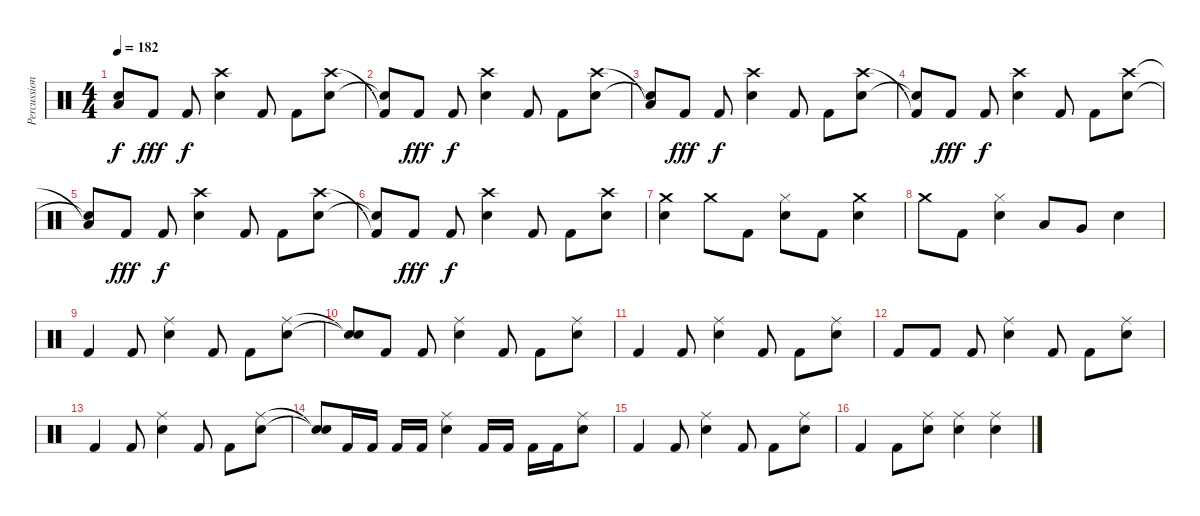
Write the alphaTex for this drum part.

\track ("Percussion" "Percussion") {instrument percussion}
\staff {score}
\articulation defaults
\ts (4 4)
\tempo 182
\clef neutral
\ks c
("Low Floor Tom (hit)"{t} "Snare (hit)"{t}).8{dy f} "Kick (hit) 2".8{dy fff} "Kick (hit) 2".8{dy f} ("Crash high (hit)" "Snare (hit) 2").4 "Kick (hit) 2".8 "Kick (hit) 2".8 ("Crash high (hit)" "Snare (hit) 2").8 |
("Kick (hit) 2"{t} "Snare (hit)"{t}).8 "Kick (hit) 2".8{dy fff} "Kick (hit) 2".8{dy f} ("Crash high (hit)" "Snare (hit) 2").4 "Kick (hit) 2".8 "Kick (hit) 2".8 ("Crash high (hit)" "Snare (hit) 2").8 |
("Low Floor Tom (hit)"{t} "Snare (hit)"{t}).8 "Kick (hit) 2".8{dy fff} "Kick (hit) 2".8{dy f} ("Crash high (hit)" "Snare (hit) 2").4 "Kick (hit) 2".8 "Kick (hit) 2".8 ("Crash high (hit)" "Snare (hit) 2").8 |
("Kick (hit) 2"{t} "Snare (hit)"{t}).8 "Kick (hit) 2".8{dy fff} "Kick (hit) 2".8{dy f} ("Crash high (hit)" "Snare (hit) 2").4 "Kick (hit) 2".8 "Kick (hit) 2".8 ("Crash high (hit)" "Snare (hit) 2").8 |
("Low Floor Tom (hit)"{t} "Snare (hit)"{t}).8 "Kick (hit) 2".8{dy fff} "Kick (hit) 2".8{dy f} ("Crash high (hit)" "Snare (hit) 2").4 "Kick (hit) 2".8 "Kick (hit) 2".8 ("Crash high (hit)" "Snare (hit) 2").8 |
("Kick (hit) 2"{t} "Snare (hit)"{t}).8 "Kick (hit) 2".8{dy fff} "Kick (hit) 2".8{dy f} ("Crash high (hit)" "Snare (hit) 2").4 "Kick (hit) 2".8 "Kick (hit) 2".8 ("Crash high (hit)" "Snare (hit) 2").8 |
("Crash medium (hit)" "Snare (hit) 2").4 "Crash medium (hit)".8 "Kick (hit) 2".8 ("Snare (hit) 2" "Hi-Hat (closed)").8 "Kick (hit) 2".8 ("Crash medium (hit)" "Snare (hit) 2").4 |
"Crash medium (hit)".8 "Kick (hit) 2".8 ("Snare (hit) 2" "Hi-Hat (closed)").4 "Low Tom (hit)".8 "Very Low Tom (hit)".8 "Snare (hit) 2".4 |
"Kick (hit) 2".4 "Kick (hit) 2".8 ("Ride (middle)" "Snare (hit) 2").4 "Kick (hit) 2".8 "Kick (hit) 2".8 ("Ride (middle)" "Snare (hit) 2").8 |
("Snare (hit)"{t} "Snare (hit)"{t}).8 "Kick (hit) 2".8 "Kick (hit) 2".8 ("Ride (middle)" "Snare (hit) 2").4 "Kick (hit) 2".8 "Kick (hit) 2".8 ("Ride (middle)" "Snare (hit) 2").8 |
"Kick (hit) 2".4 "Kick (hit) 2".8 ("Ride (middle)" "Snare (hit) 2").4 "Kick (hit) 2".8 "Kick (hit) 2".8 ("Ride (middle)" "Snare (hit) 2").8 |
"Kick (hit) 2".8 "Kick (hit) 2".8 "Kick (hit) 2".8 ("Ride (middle)" "Snare (hit) 2").4 "Kick (hit) 2".8 "Kick (hit) 2".8 ("Ride (middle)" "Snare (hit) 2").8 |
"Kick (hit) 2".4 "Kick (hit) 2".8 ("Ride (middle)" "Snare (hit) 2").4 "Kick (hit) 2".8 "Kick (hit) 2".8 ("Ride (middle)" "Snare (hit) 2").8 |
("Snare (hit)"{t} "Snare (hit)"{t}).8 "Kick (hit) 2".16 "Kick (hit) 2".16 "Kick (hit) 2".16 "Kick (hit) 2".16 ("Ride (middle)" "Snare (hit) 2").4 "Kick (hit) 2".16 "Kick (hit) 2".16 "Kick (hit) 2".16 "Kick (hit) 2".16 ("Ride (middle)" "Snare (hit) 2").8 |
"Kick (hit) 2".4 "Kick (hit) 2".8 ("Ride (middle)" "Snare (hit) 2").4 "Kick (hit) 2".8 "Kick (hit) 2".8 ("Ride (middle)" "Snare (hit) 2").8 |
"Kick (hit) 2".4 "Kick (hit) 2".8 ("Ride (middle)" "Snare (hit) 2").8 ("Ride (middle)" "Snare (hit) 2").4 ("Ride (middle)" "Snare (hit) 2").4
